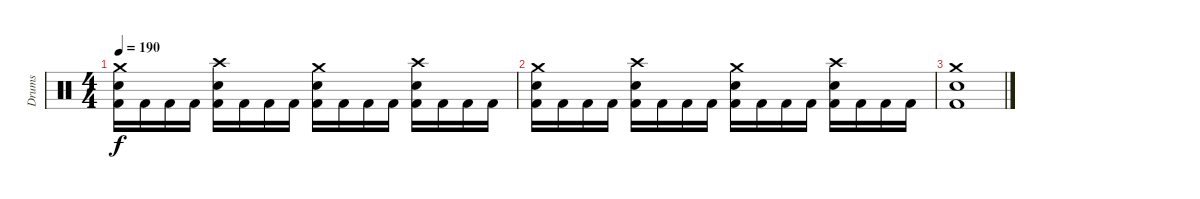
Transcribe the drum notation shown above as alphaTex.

\track ("Drums" "Drums") {instrument percussion}
\staff {score}
\articulation defaults
\ts (4 4)
\tempo 190
\clef neutral
\ks c
("Crash medium (hit)" "Kick (hit) 2" "Snare (hit) 2").16{dy f} "Kick (hit) 2".16 "Kick (hit) 2".16 "Kick (hit) 2".16 ("Crash high (hit)" "Kick (hit) 2" "Snare (hit) 2").16 "Kick (hit) 2".16 "Kick (hit) 2".16 "Kick (hit) 2".16 ("Crash medium (hit)" "Kick (hit) 2" "Snare (hit) 2").16 "Kick (hit) 2".16 "Kick (hit) 2".16 "Kick (hit) 2".16 ("Crash high (hit)" "Kick (hit) 2" "Snare (hit) 2").16 "Kick (hit) 2".16 "Kick (hit) 2".16 "Kick (hit) 2".16 |
("Crash medium (hit)" "Kick (hit) 2" "Snare (hit) 2").16 "Kick (hit) 2".16 "Kick (hit) 2".16 "Kick (hit) 2".16 ("Crash high (hit)" "Kick (hit) 2" "Snare (hit) 2").16 "Kick (hit) 2".16 "Kick (hit) 2".16 "Kick (hit) 2".16 ("Crash medium (hit)" "Kick (hit) 2" "Snare (hit) 2").16 "Kick (hit) 2".16 "Kick (hit) 2".16 "Kick (hit) 2".16 ("Crash high (hit)" "Kick (hit) 2" "Snare (hit) 2").16 "Kick (hit) 2".16 "Kick (hit) 2".16 "Kick (hit) 2".16 |
("Crash medium (hit)" "Kick (hit) 2" "Snare (hit) 2").1
